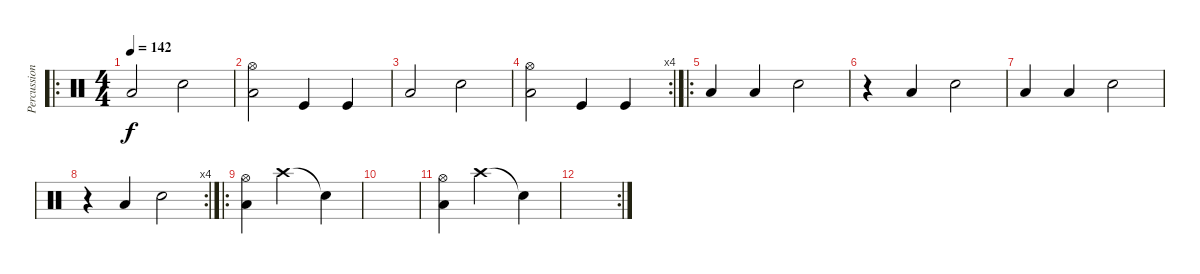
\track ("Percussions" "Percussion") {instrument percussion}
\staff {score}
\articulation defaults
\ro
\ts (4 4)
\tempo 142
\clef neutral
\ks c "Low Tom (hit)".2{dy f} "Snare (hit) 2".2
|
("Hi-Hat (open)" "Low Tom (hit)").2 "Kick (hit)".4 "Kick (hit)".4 |
"Low Tom (hit)".2 "Snare (hit) 2".2 |
\rc 4
("Hi-Hat (open)" "Low Tom (hit)").2 "Kick (hit)".4 "Kick (hit)".4 |
\ro "Low Tom (hit)".4 "Low Tom (hit)".4 "Snare (hit) 2".2
|
r.4 "Low Tom (hit)".4 "Snare (hit) 2".2 |
"Low Tom (hit)".4 "Low Tom (hit)".4 "Snare (hit) 2".2 |
\rc 4
r.4 "Low Tom (hit)".4 "Snare (hit) 2".2 |
\ro
("Hi-Hat (open)" "Low Floor Tom (hit)").4 "Crash high (hit)".2 "Snare (hit)"{t}.4 |
|
("Hi-Hat (open)" "Low Floor Tom (hit)").4 "Crash high (hit)".2 "Snare (hit)"{t}.4 |
\rc 2
